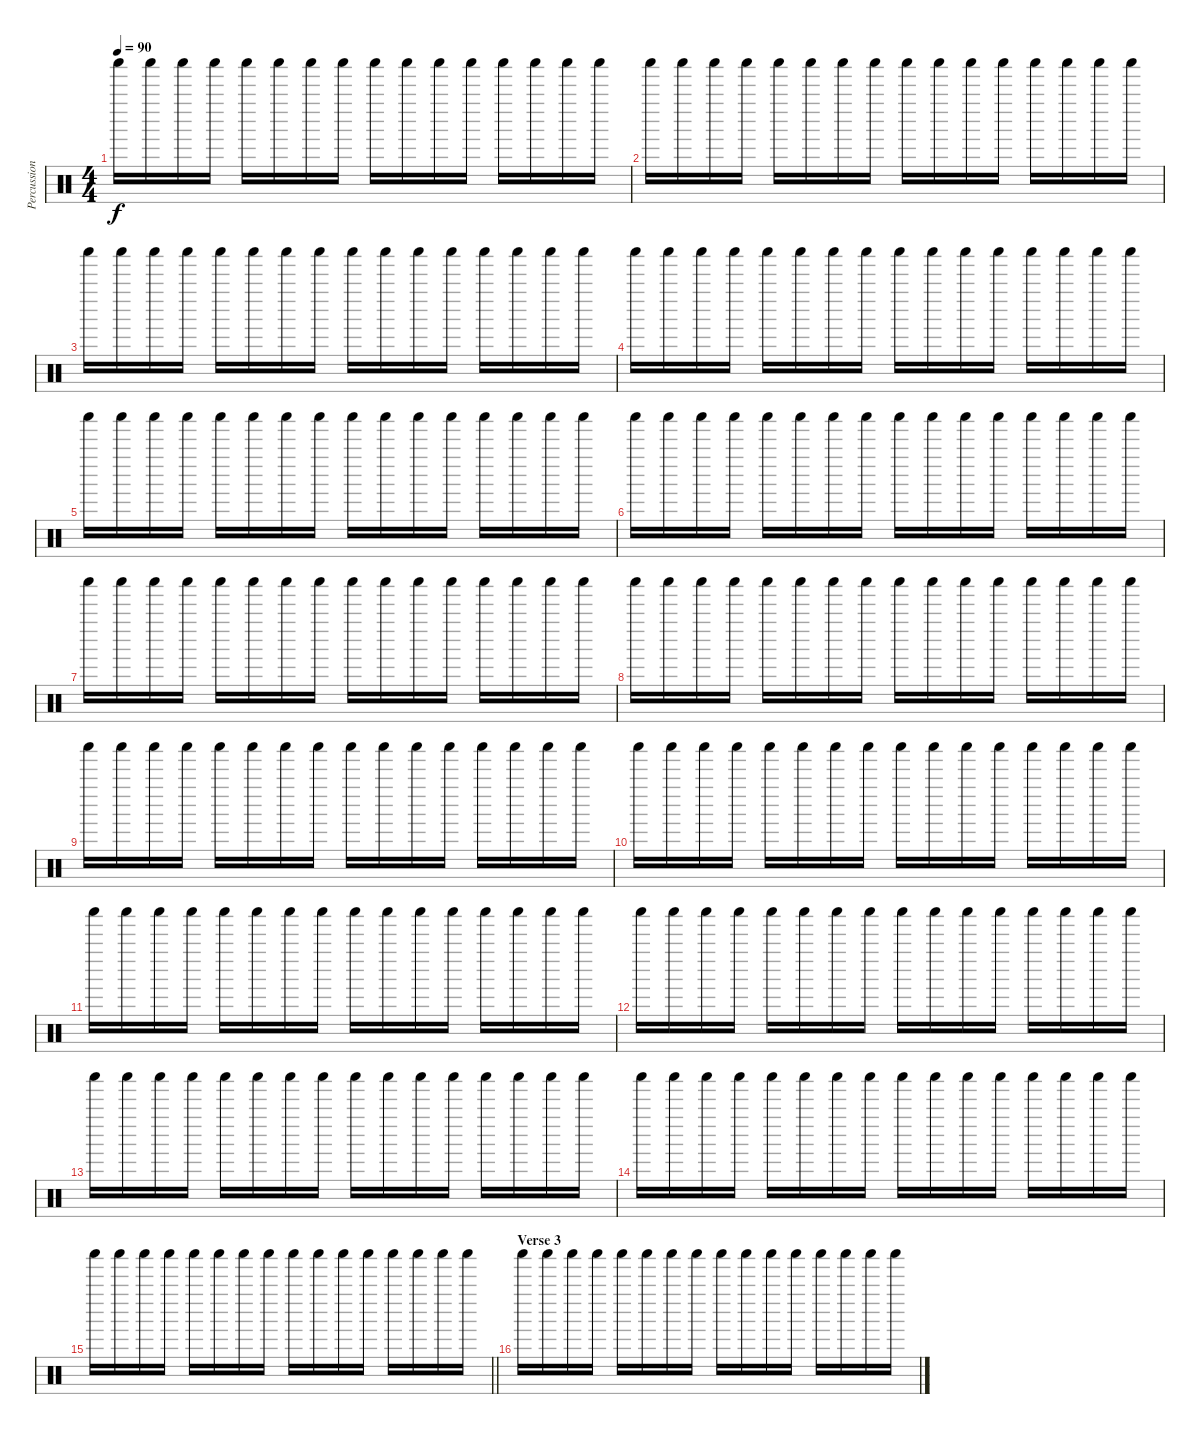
\track ("Percussion" "Percussion") {instrument percussion}
\staff {score}
\articulation defaults
\ts (4 4)
\tempo 90
\clef neutral
\ks c "Shaker (hit)".16{dy f} "Shaker (hit)".16 "Shaker (hit)".16 "Shaker (hit)".16 "Shaker (hit)".16 "Shaker (hit)".16 "Shaker (hit)".16 "Shaker (hit)".16 "Shaker (hit)".16 "Shaker (hit)".16 "Shaker (hit)".16 "Shaker (hit)".16 "Shaker (hit)".16 "Shaker (hit)".16 "Shaker (hit)".16 "Shaker (hit)".16
|
"Shaker (hit)".16 "Shaker (hit)".16 "Shaker (hit)".16 "Shaker (hit)".16 "Shaker (hit)".16 "Shaker (hit)".16 "Shaker (hit)".16 "Shaker (hit)".16 "Shaker (hit)".16 "Shaker (hit)".16 "Shaker (hit)".16 "Shaker (hit)".16 "Shaker (hit)".16 "Shaker (hit)".16 "Shaker (hit)".16 "Shaker (hit)".16 |
"Shaker (hit)".16 "Shaker (hit)".16 "Shaker (hit)".16 "Shaker (hit)".16 "Shaker (hit)".16 "Shaker (hit)".16 "Shaker (hit)".16 "Shaker (hit)".16 "Shaker (hit)".16 "Shaker (hit)".16 "Shaker (hit)".16 "Shaker (hit)".16 "Shaker (hit)".16 "Shaker (hit)".16 "Shaker (hit)".16 "Shaker (hit)".16 |
"Shaker (hit)".16 "Shaker (hit)".16 "Shaker (hit)".16 "Shaker (hit)".16 "Shaker (hit)".16 "Shaker (hit)".16 "Shaker (hit)".16 "Shaker (hit)".16 "Shaker (hit)".16 "Shaker (hit)".16 "Shaker (hit)".16 "Shaker (hit)".16 "Shaker (hit)".16 "Shaker (hit)".16 "Shaker (hit)".16 "Shaker (hit)".16 |
"Shaker (hit)".16 "Shaker (hit)".16 "Shaker (hit)".16 "Shaker (hit)".16 "Shaker (hit)".16 "Shaker (hit)".16 "Shaker (hit)".16 "Shaker (hit)".16 "Shaker (hit)".16 "Shaker (hit)".16 "Shaker (hit)".16 "Shaker (hit)".16 "Shaker (hit)".16 "Shaker (hit)".16 "Shaker (hit)".16 "Shaker (hit)".16 |
"Shaker (hit)".16 "Shaker (hit)".16 "Shaker (hit)".16 "Shaker (hit)".16 "Shaker (hit)".16 "Shaker (hit)".16 "Shaker (hit)".16 "Shaker (hit)".16 "Shaker (hit)".16 "Shaker (hit)".16 "Shaker (hit)".16 "Shaker (hit)".16 "Shaker (hit)".16 "Shaker (hit)".16 "Shaker (hit)".16 "Shaker (hit)".16 |
"Shaker (hit)".16 "Shaker (hit)".16 "Shaker (hit)".16 "Shaker (hit)".16 "Shaker (hit)".16 "Shaker (hit)".16 "Shaker (hit)".16 "Shaker (hit)".16 "Shaker (hit)".16 "Shaker (hit)".16 "Shaker (hit)".16 "Shaker (hit)".16 "Shaker (hit)".16 "Shaker (hit)".16 "Shaker (hit)".16 "Shaker (hit)".16 |
"Shaker (hit)".16 "Shaker (hit)".16 "Shaker (hit)".16 "Shaker (hit)".16 "Shaker (hit)".16 "Shaker (hit)".16 "Shaker (hit)".16 "Shaker (hit)".16 "Shaker (hit)".16 "Shaker (hit)".16 "Shaker (hit)".16 "Shaker (hit)".16 "Shaker (hit)".16 "Shaker (hit)".16 "Shaker (hit)".16 "Shaker (hit)".16 |
"Shaker (hit)".16 "Shaker (hit)".16 "Shaker (hit)".16 "Shaker (hit)".16 "Shaker (hit)".16 "Shaker (hit)".16 "Shaker (hit)".16 "Shaker (hit)".16 "Shaker (hit)".16 "Shaker (hit)".16 "Shaker (hit)".16 "Shaker (hit)".16 "Shaker (hit)".16 "Shaker (hit)".16 "Shaker (hit)".16 "Shaker (hit)".16 |
"Shaker (hit)".16 "Shaker (hit)".16 "Shaker (hit)".16 "Shaker (hit)".16 "Shaker (hit)".16 "Shaker (hit)".16 "Shaker (hit)".16 "Shaker (hit)".16 "Shaker (hit)".16 "Shaker (hit)".16 "Shaker (hit)".16 "Shaker (hit)".16 "Shaker (hit)".16 "Shaker (hit)".16 "Shaker (hit)".16 "Shaker (hit)".16 |
"Shaker (hit)".16 "Shaker (hit)".16 "Shaker (hit)".16 "Shaker (hit)".16 "Shaker (hit)".16 "Shaker (hit)".16 "Shaker (hit)".16 "Shaker (hit)".16 "Shaker (hit)".16 "Shaker (hit)".16 "Shaker (hit)".16 "Shaker (hit)".16 "Shaker (hit)".16 "Shaker (hit)".16 "Shaker (hit)".16 "Shaker (hit)".16 |
"Shaker (hit)".16 "Shaker (hit)".16 "Shaker (hit)".16 "Shaker (hit)".16 "Shaker (hit)".16 "Shaker (hit)".16 "Shaker (hit)".16 "Shaker (hit)".16 "Shaker (hit)".16 "Shaker (hit)".16 "Shaker (hit)".16 "Shaker (hit)".16 "Shaker (hit)".16 "Shaker (hit)".16 "Shaker (hit)".16 "Shaker (hit)".16 |
"Shaker (hit)".16 "Shaker (hit)".16 "Shaker (hit)".16 "Shaker (hit)".16 "Shaker (hit)".16 "Shaker (hit)".16 "Shaker (hit)".16 "Shaker (hit)".16 "Shaker (hit)".16 "Shaker (hit)".16 "Shaker (hit)".16 "Shaker (hit)".16 "Shaker (hit)".16 "Shaker (hit)".16 "Shaker (hit)".16 "Shaker (hit)".16 |
"Shaker (hit)".16 "Shaker (hit)".16 "Shaker (hit)".16 "Shaker (hit)".16 "Shaker (hit)".16 "Shaker (hit)".16 "Shaker (hit)".16 "Shaker (hit)".16 "Shaker (hit)".16 "Shaker (hit)".16 "Shaker (hit)".16 "Shaker (hit)".16 "Shaker (hit)".16 "Shaker (hit)".16 "Shaker (hit)".16 "Shaker (hit)".16 |
\barLineRight lightlight "Shaker (hit)".16 "Shaker (hit)".16 "Shaker (hit)".16 "Shaker (hit)".16 "Shaker (hit)".16 "Shaker (hit)".16 "Shaker (hit)".16 "Shaker (hit)".16 "Shaker (hit)".16 "Shaker (hit)".16 "Shaker (hit)".16 "Shaker (hit)".16 "Shaker (hit)".16 "Shaker (hit)".16 "Shaker (hit)".16 "Shaker (hit)".16
|
\section ("" "Verse 3")
"Shaker (hit)".16 "Shaker (hit)".16 "Shaker (hit)".16 "Shaker (hit)".16 "Shaker (hit)".16 "Shaker (hit)".16 "Shaker (hit)".16 "Shaker (hit)".16 "Shaker (hit)".16 "Shaker (hit)".16 "Shaker (hit)".16 "Shaker (hit)".16 "Shaker (hit)".16 "Shaker (hit)".16 "Shaker (hit)".16 "Shaker (hit)".16
